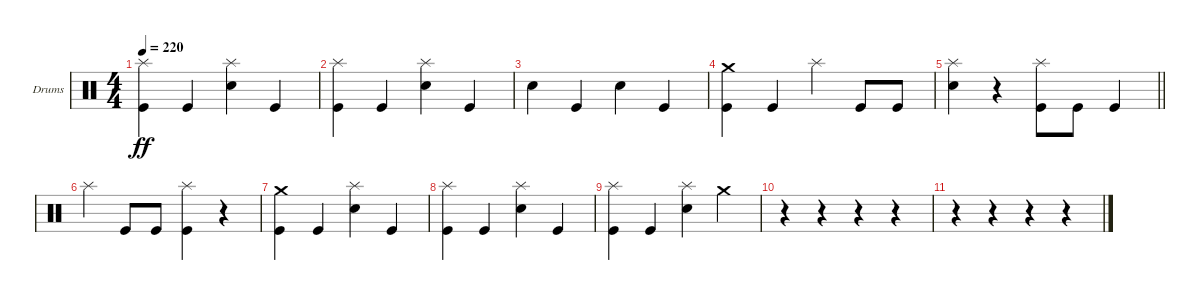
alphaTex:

\bracketExtendMode groupsimilarinstruments
\firstSystemTrackNameOrientation horizontal
\otherSystemsTrackNameOrientation horizontal
\track ("Drumkit" "Drums") {instrument percussion}
\staff {score}
\articulation defaults
\ts (4 4)
\tempo 220
\clef neutral
\ks c
("Splash (hit)" "Kick (hit)").4{dy ff} "Kick (hit)".4 ("Splash (hit)" "Snare (hit) 2").4 "Kick (hit)".4 |
("Splash (hit)" "Kick (hit)").4 "Kick (hit)".4 ("Splash (hit)" "Snare (hit) 2").4 "Kick (hit)".4 |
"Snare (hit) 2".4 "Kick (hit)".4 "Snare (hit) 2".4 "Kick (hit)".4 |
("Crash medium (hit)" "Kick (hit)").4 "Kick (hit)".4 "Splash (hit)".4 "Kick (hit)".8 "Kick (hit)".8 |
\barLineRight lightlight
("Splash (hit)" "Snare (hit) 2").4 r.4 ("Splash (hit)" "Kick (hit)").8 "Kick (hit)".8 "Kick (hit)".4 |
"Splash (hit)".4 "Kick (hit)".8 "Kick (hit)".8 ("Splash (hit)" "Kick (hit)").4 r.4 |
("Crash medium (hit)" "Kick (hit)").4 "Kick (hit)".4 ("Splash (hit)" "Snare (hit) 2").4 "Kick (hit)".4 |
("Splash (hit)" "Kick (hit)").4 "Kick (hit)".4 ("Splash (hit)" "Snare (hit) 2").4 "Kick (hit)".4 |
("Splash (hit)" "Kick (hit)").4 "Kick (hit)".4 ("Splash (hit)" "Snare (hit) 2").4 "Crash medium (hit)".4 |
r.4 r.4 r.4 r.4 |
r.4 r.4 r.4 r.4
